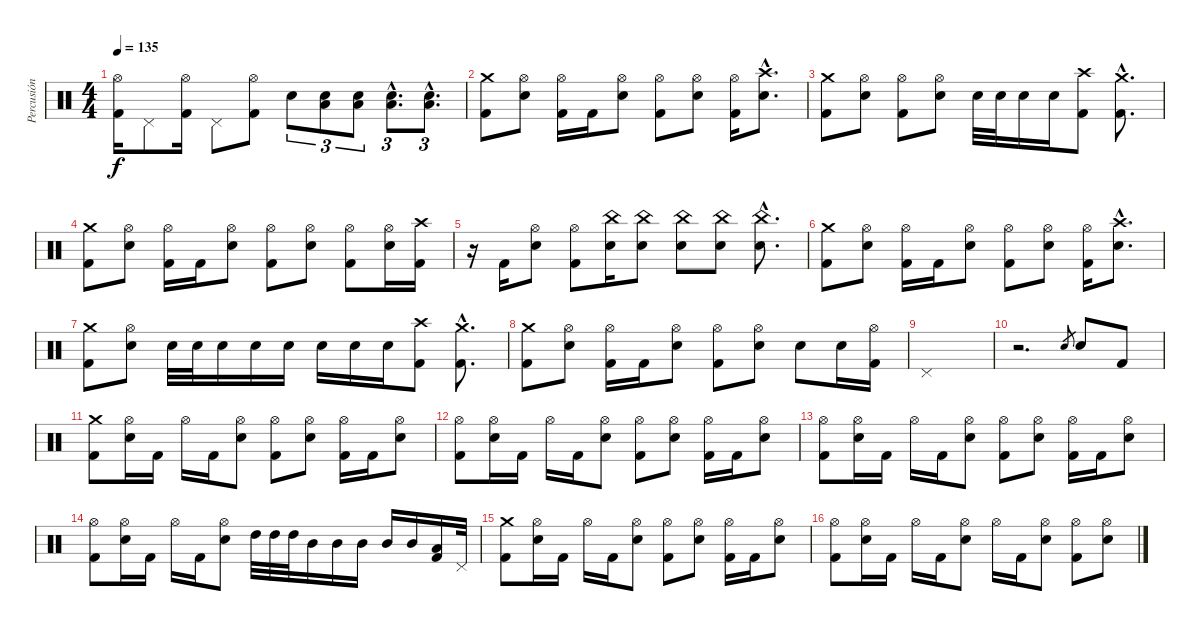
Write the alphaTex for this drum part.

\track ("Percusión" "Percusión") {instrument percussion}
\staff {score}
\articulation defaults
\ts (4 4)
\tempo 135
\clef neutral
\ks c
("Hi-Hat (open)" "Kick (hit) 2").16{dy f} "Pedal Hi-Hat (hit)".8 ("Hi-Hat (open)" "Kick (hit) 2").16 "Pedal Hi-Hat (hit)".8 ("Hi-Hat (open)" "Kick (hit) 2").8 "Electric Snare (hit)".8{tu (3 2)} ("Low Tom (hit)" "Electric Snare (hit)").8{tu (3 2)} ("Low Tom (hit)" "Electric Snare (hit)").8{tu (3 2)} ("Low Tom (hit)"{hac} "Electric Snare (hit)"{hac}).8{d tu (3 2)} ("Low Tom (hit)"{hac} "Electric Snare (hit)"{hac}).8{d tu (3 2)} |
("Crash medium (hit)" "Kick (hit) 2").8 ("Hi-Hat (open)" "Electric Snare (hit)").8 ("Hi-Hat (open)" "Kick (hit) 2").16 "Kick (hit) 2".16 ("Hi-Hat (open)" "Electric Snare (hit)").8 ("Hi-Hat (open)" "Kick (hit) 2").8 ("Hi-Hat (open)" "Electric Snare (hit)").8 ("Hi-Hat (open)" "Kick (hit) 2").16 ("Crash high (hit)"{hac} "Electric Snare (hit)"{hac}).8{d} |
("Crash medium (hit)" "Kick (hit) 2").8 ("Hi-Hat (open)" "Electric Snare (hit)").8 ("Hi-Hat (open)" "Kick (hit) 2").8 ("Hi-Hat (open)" "Electric Snare (hit)").8 "Electric Snare (hit)".32 "Electric Snare (hit)".32 "Electric Snare (hit)".16 "Electric Snare (hit)".16 ("Crash high (hit)" "Kick (hit) 2").8 ("Crash medium (hit)"{hac} "Kick (hit) 2"{hac}).8{d} |
("Crash medium (hit)" "Kick (hit) 2").8 ("Hi-Hat (open)" "Electric Snare (hit)").8 ("Hi-Hat (open)" "Kick (hit) 2").16 "Kick (hit) 2".16 ("Hi-Hat (open)" "Electric Snare (hit)").8 ("Hi-Hat (open)" "Kick (hit) 2").8 ("Hi-Hat (open)" "Electric Snare (hit)").8 ("Hi-Hat (open)" "Kick (hit) 2").8 ("Hi-Hat (open)" "Electric Snare (hit)").16 ("Crash high (hit)" "Kick (hit) 2").16 |
r.16 "Kick (hit) 2".16 ("Hi-Hat (open)" "Electric Snare (hit)").8 ("Hi-Hat (open)" "Kick (hit) 2").8 ("China (hit)" "Electric Snare (hit)").16 ("China (hit)" "Electric Snare (hit)").8 ("China (hit)" "Electric Snare (hit)").8 ("China (hit)" "Electric Snare (hit)").8 ("China (hit)"{hac} "Electric Snare (hit)"{hac}).8{d} |
("Crash medium (hit)" "Kick (hit) 2").8 ("Hi-Hat (open)" "Electric Snare (hit)").8 ("Hi-Hat (open)" "Kick (hit) 2").16 "Kick (hit) 2".16 ("Hi-Hat (open)" "Electric Snare (hit)").8 ("Hi-Hat (open)" "Kick (hit) 2").8 ("Hi-Hat (open)" "Electric Snare (hit)").8 ("Hi-Hat (open)" "Kick (hit) 2").16 ("Crash high (hit)"{hac} "Electric Snare (hit)"{hac}).8{d} |
("Crash medium (hit)" "Kick (hit) 2").8 ("Hi-Hat (open)" "Electric Snare (hit)").8 "Electric Snare (hit)".32 "Electric Snare (hit)".32 "Electric Snare (hit)".16 "Electric Snare (hit)".16 "Electric Snare (hit)".16 "Electric Snare (hit)".16 "Electric Snare (hit)".16 "Electric Snare (hit)".16 ("Crash high (hit)" "Kick (hit) 2").8 ("Crash medium (hit)"{hac} "Kick (hit) 2"{hac}).8{d} |
("Crash medium (hit)" "Kick (hit) 2").8 ("Hi-Hat (open)" "Electric Snare (hit)").8 ("Hi-Hat (open)" "Kick (hit) 2").16 "Kick (hit) 2".16 ("Hi-Hat (open)" "Electric Snare (hit)").8 ("Hi-Hat (open)" "Kick (hit) 2").8 ("Hi-Hat (open)" "Electric Snare (hit)").8 "Electric Snare (hit)".8 "Electric Snare (hit)".16 ("Hi-Hat (open)" "Kick (hit) 2").16 |
"Pedal Hi-Hat (hit)".1 |
r.2{d} "Electric Snare (hit)".8{gr} "Electric Snare (hit)".8 "Kick (hit) 2".8 |
("Crash medium (hit)" "Kick (hit) 2").8 ("Hi-Hat (open)" "Electric Snare (hit)").16 "Kick (hit) 2".16 "Hi-Hat (open)".16 "Kick (hit) 2".16 ("Hi-Hat (open)" "Electric Snare (hit)").8 ("Hi-Hat (open)" "Kick (hit) 2").8 ("Hi-Hat (open)" "Electric Snare (hit)").8 ("Hi-Hat (open)" "Kick (hit) 2").16 "Kick (hit) 2".16 ("Hi-Hat (open)" "Electric Snare (hit)").8 |
("Hi-Hat (open)" "Kick (hit) 2").8 ("Hi-Hat (open)" "Electric Snare (hit)").16 "Kick (hit) 2".16 "Hi-Hat (open)".16 "Kick (hit) 2".16 ("Hi-Hat (open)" "Electric Snare (hit)").8 ("Hi-Hat (open)" "Kick (hit) 2").8 ("Hi-Hat (open)" "Electric Snare (hit)").8 ("Hi-Hat (open)" "Kick (hit) 2").16 "Kick (hit) 2".16 ("Hi-Hat (open)" "Electric Snare (hit)").8 |
("Hi-Hat (open)" "Kick (hit) 2").8 ("Hi-Hat (open)" "Electric Snare (hit)").16 "Kick (hit) 2".16 "Hi-Hat (open)".16 "Kick (hit) 2".16 ("Hi-Hat (open)" "Electric Snare (hit)").8 ("Hi-Hat (open)" "Kick (hit) 2").8 ("Hi-Hat (open)" "Electric Snare (hit)").8 ("Hi-Hat (open)" "Kick (hit) 2").16 "Kick (hit) 2".16 ("Hi-Hat (open)" "Electric Snare (hit)").8 |
("Hi-Hat (open)" "Kick (hit) 2").8 ("Hi-Hat (open)" "Electric Snare (hit)").16 "Kick (hit) 2".16 "Hi-Hat (open)".16 "Kick (hit) 2".16 ("Hi-Hat (open)" "Electric Snare (hit)").8 "High Tom (hit)".32 "High Tom (hit)".32 "High Tom (hit)".32 "Mid Tom (hit)".16 "Mid Tom (hit)".16 "Mid Tom (hit)".16 "Mid Tom (hit)".16 "Mid Tom (hit)".16 ("Low Tom (hit)" "Kick (hit) 2").16 "Pedal Hi-Hat (hit)".32 |
("Crash medium (hit)" "Kick (hit) 2").8 ("Hi-Hat (open)" "Electric Snare (hit)").16 "Kick (hit) 2".16 "Hi-Hat (open)".16 "Kick (hit) 2".16 ("Hi-Hat (open)" "Electric Snare (hit)").8 ("Hi-Hat (open)" "Kick (hit) 2").8 ("Hi-Hat (open)" "Electric Snare (hit)").8 ("Hi-Hat (open)" "Kick (hit) 2").16 "Kick (hit) 2".16 ("Hi-Hat (open)" "Electric Snare (hit)").8 |
("Hi-Hat (open)" "Kick (hit) 2").8 ("Hi-Hat (open)" "Electric Snare (hit)").16 "Kick (hit) 2".16 "Hi-Hat (open)".16 "Kick (hit) 2".16 ("Hi-Hat (open)" "Electric Snare (hit)").8 "Hi-Hat (open)".16 "Kick (hit) 2".16 ("Hi-Hat (open)" "Electric Snare (hit)").8 ("Hi-Hat (open)" "Kick (hit) 2").8 ("Hi-Hat (open)" "Electric Snare (hit)").8
